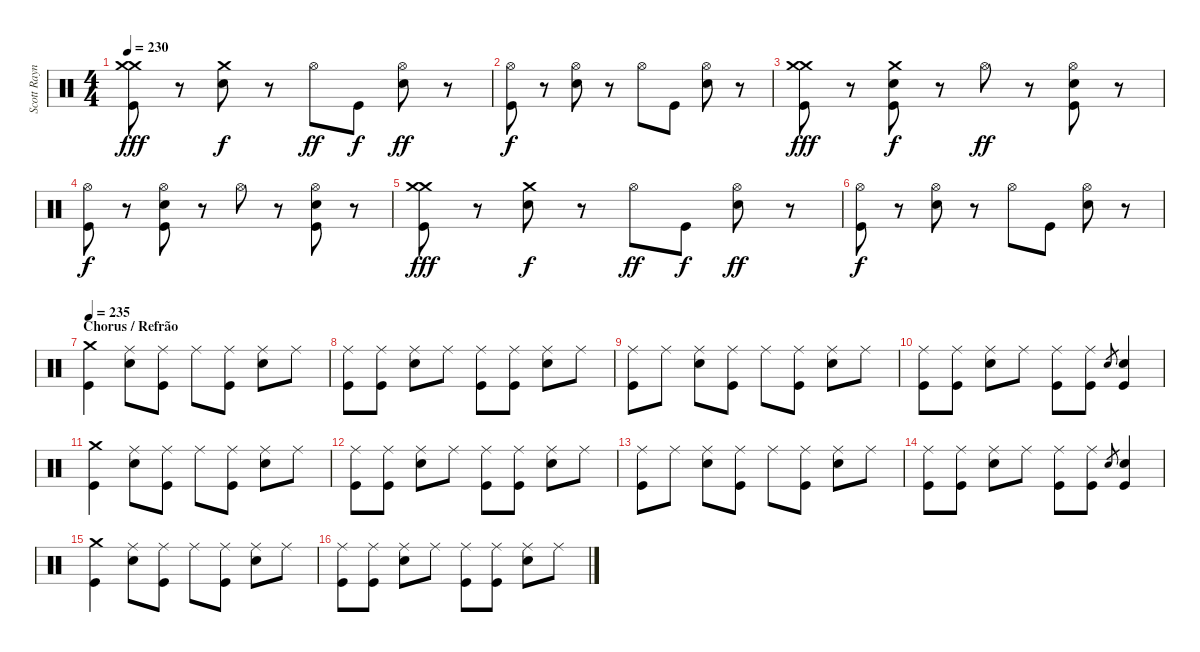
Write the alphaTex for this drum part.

\track ("Scott Raynor - Drums/Bateria" "Scott Rayn") {instrument percussion}
\staff {score}
\articulation defaults
\ts (4 4)
\tempo 230
\clef neutral
\ks c
("Crash medium (hit)" "Crash medium (hit)" "Kick (hit)").8{dy fff} r.8 ("Crash medium (hit)" "Electric Snare (hit)").8{dy f} r.8 "Hi-Hat (open)".8{dy ff} "Kick (hit)".8{dy f} ("Hi-Hat (open)" "Electric Snare (hit)").8{dy ff} r.8 |
("Hi-Hat (open)" "Kick (hit)").8{dy f} r.8 ("Hi-Hat (open)" "Electric Snare (hit)").8 r.8 "Hi-Hat (open)".8 "Kick (hit)".8 ("Hi-Hat (open)" "Electric Snare (hit)").8 r.8 |
("Crash medium (hit)" "Crash medium (hit)" "Kick (hit)").8{dy fff} r.8 ("Crash medium (hit)" "Electric Snare (hit)" "Kick (hit)").8{dy f} r.8 "Hi-Hat (open)".8{dy ff} r.8 ("Hi-Hat (open)" "Electric Snare (hit)" "Kick (hit)").8 r.8 |
("Hi-Hat (open)" "Kick (hit)").8{dy f} r.8 ("Hi-Hat (open)" "Electric Snare (hit)" "Kick (hit)").8 r.8 "Hi-Hat (open)".8 r.8 ("Hi-Hat (open)" "Electric Snare (hit)" "Kick (hit)").8 r.8 |
("Crash medium (hit)" "Crash medium (hit)" "Kick (hit)").8{dy fff} r.8 ("Crash medium (hit)" "Electric Snare (hit)").8{dy f} r.8 "Hi-Hat (open)".8{dy ff} "Kick (hit)".8{dy f} ("Hi-Hat (open)" "Electric Snare (hit)").8{dy ff} r.8 |
("Hi-Hat (open)" "Kick (hit)").8{dy f} r.8 ("Hi-Hat (open)" "Electric Snare (hit)").8 r.8 "Hi-Hat (open)".8 "Kick (hit)".8 ("Hi-Hat (open)" "Electric Snare (hit)").8 r.8 |
\section ("" "Chorus / Refrão")
\tempo 235
("Crash medium (hit)" "Kick (hit)").4 ("Ride (middle)" "Electric Snare (hit)").8 ("Ride (middle)" "Kick (hit)").8 "Ride (middle)".8 ("Ride (middle)" "Kick (hit)").8 ("Ride (middle)" "Electric Snare (hit)").8 "Ride (middle)".8 |
("Ride (middle)" "Kick (hit)").8 ("Ride (middle)" "Kick (hit)").8 ("Ride (middle)" "Electric Snare (hit)").8 "Ride (middle)".8 ("Ride (middle)" "Kick (hit)").8 ("Ride (middle)" "Kick (hit)").8 ("Ride (middle)" "Electric Snare (hit)").8 "Ride (middle)".8 |
("Ride (middle)" "Kick (hit)").8 "Ride (middle)".8 ("Ride (middle)" "Electric Snare (hit)").8 ("Ride (middle)" "Kick (hit)").8 "Ride (middle)".8 ("Ride (middle)" "Kick (hit)").8 ("Ride (middle)" "Electric Snare (hit)").8 "Ride (middle)".8 |
("Ride (middle)" "Kick (hit)").8 ("Ride (middle)" "Kick (hit)").8 ("Ride (middle)" "Electric Snare (hit)").8 "Ride (middle)".8 ("Ride (middle)" "Kick (hit)").8 ("Ride (middle)" "Kick (hit)").8 "Electric Snare (hit)".8{gr} ("Electric Snare (hit)" "Kick (hit)").4 |
("Crash medium (hit)" "Kick (hit)").4 ("Ride (middle)" "Electric Snare (hit)").8 ("Ride (middle)" "Kick (hit)").8 "Ride (middle)".8 ("Ride (middle)" "Kick (hit)").8 ("Ride (middle)" "Electric Snare (hit)").8 "Ride (middle)".8 |
("Ride (middle)" "Kick (hit)").8 ("Ride (middle)" "Kick (hit)").8 ("Ride (middle)" "Electric Snare (hit)").8 "Ride (middle)".8 ("Ride (middle)" "Kick (hit)").8 ("Ride (middle)" "Kick (hit)").8 ("Ride (middle)" "Electric Snare (hit)").8 "Ride (middle)".8 |
("Ride (middle)" "Kick (hit)").8 "Ride (middle)".8 ("Ride (middle)" "Electric Snare (hit)").8 ("Ride (middle)" "Kick (hit)").8 "Ride (middle)".8 ("Ride (middle)" "Kick (hit)").8 ("Ride (middle)" "Electric Snare (hit)").8 "Ride (middle)".8 |
("Ride (middle)" "Kick (hit)").8 ("Ride (middle)" "Kick (hit)").8 ("Ride (middle)" "Electric Snare (hit)").8 "Ride (middle)".8 ("Ride (middle)" "Kick (hit)").8 ("Ride (middle)" "Kick (hit)").8 "Electric Snare (hit)".8{gr} ("Electric Snare (hit)" "Kick (hit)").4 |
("Crash medium (hit)" "Kick (hit)").4 ("Ride (middle)" "Electric Snare (hit)").8 ("Ride (middle)" "Kick (hit)").8 "Ride (middle)".8 ("Ride (middle)" "Kick (hit)").8 ("Ride (middle)" "Electric Snare (hit)").8 "Ride (middle)".8 |
("Ride (middle)" "Kick (hit)").8 ("Ride (middle)" "Kick (hit)").8 ("Ride (middle)" "Electric Snare (hit)").8 "Ride (middle)".8 ("Ride (middle)" "Kick (hit)").8 ("Ride (middle)" "Kick (hit)").8 ("Ride (middle)" "Electric Snare (hit)").8 "Ride (middle)".8
